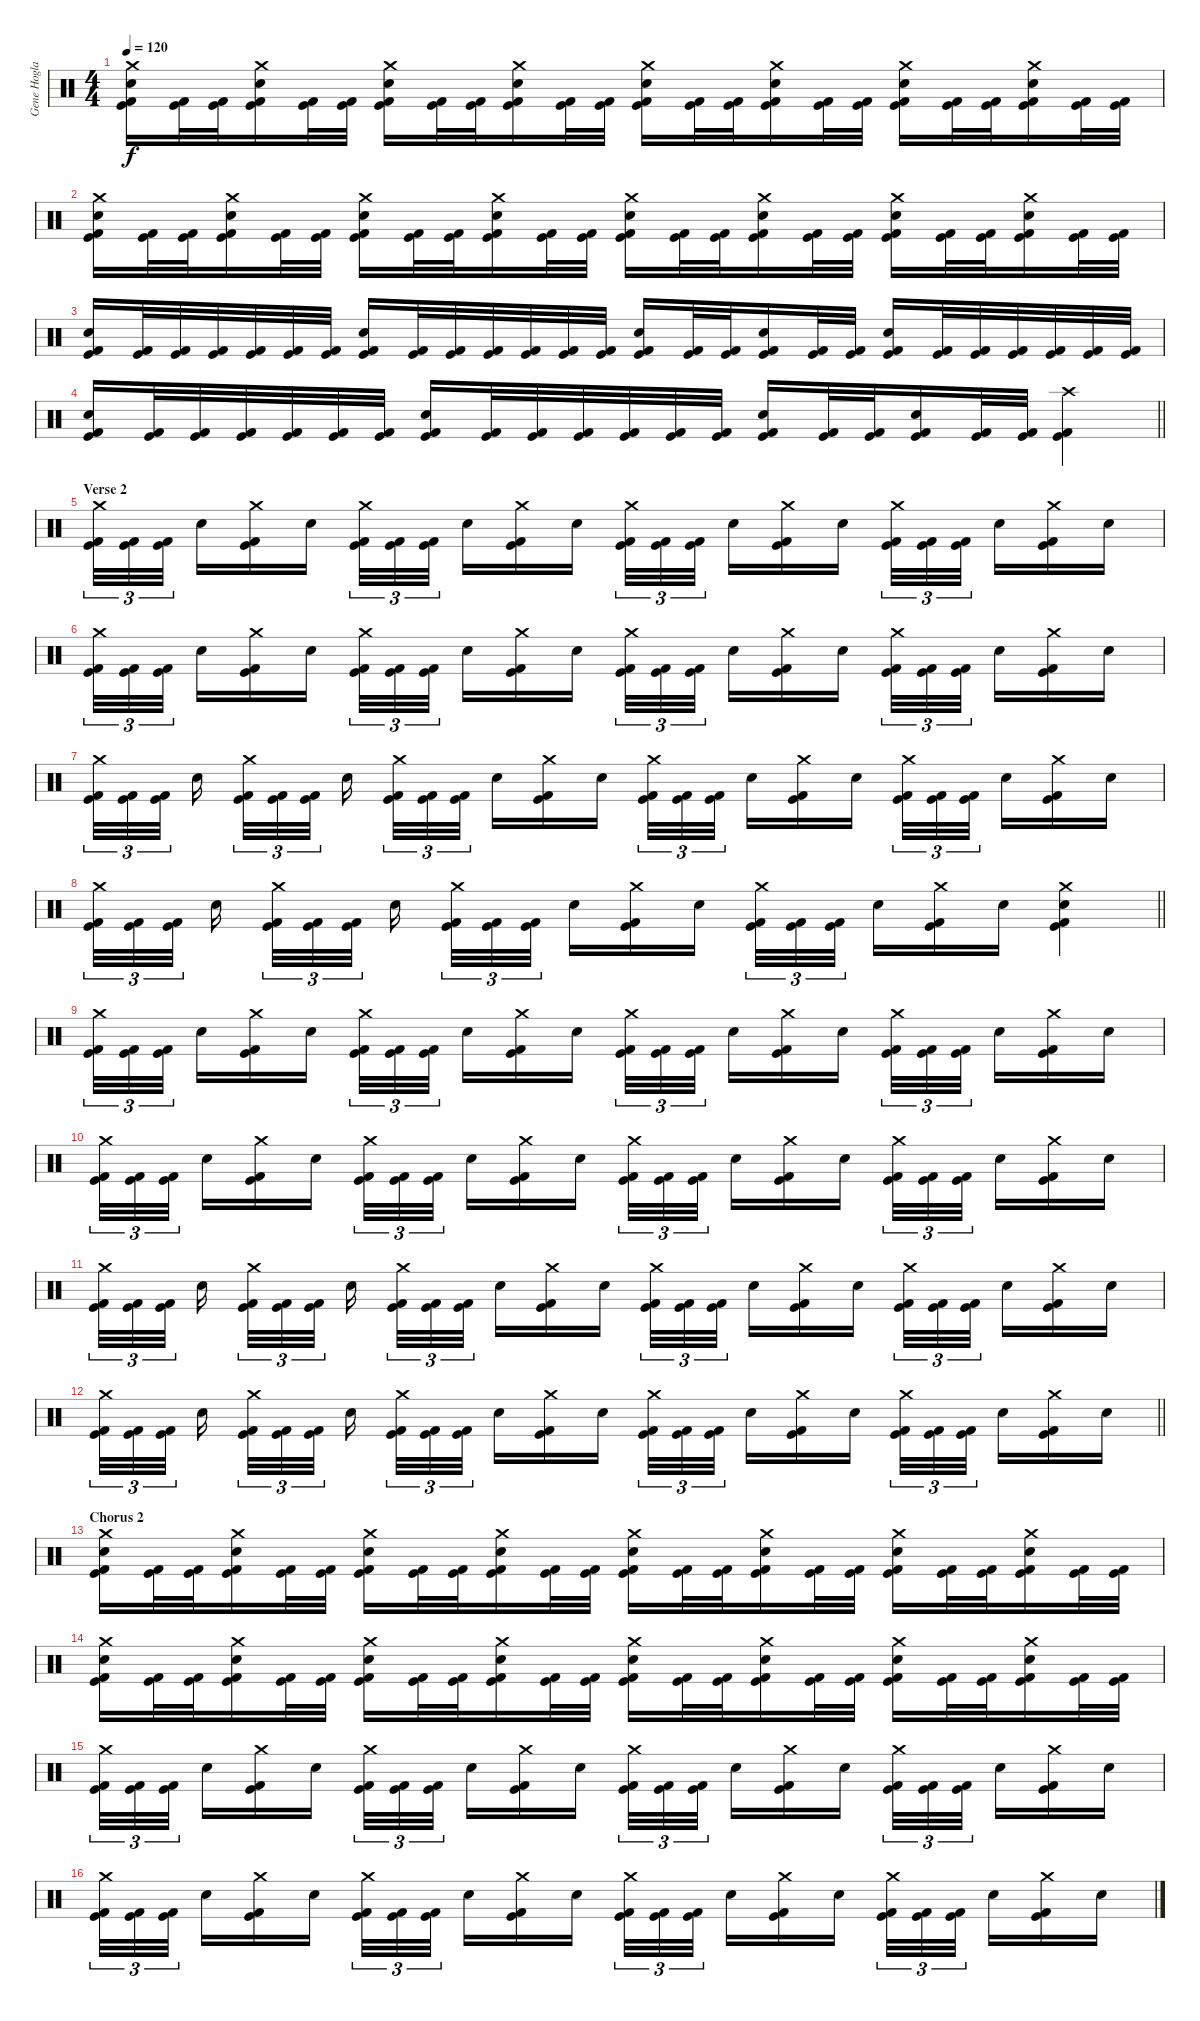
\track ("Gene Hogland" "Gene Hogla") {instrument percussion}
\staff {score}
\articulation defaults
\ts (4 4)
\tempo 120
\clef neutral
\ks c
("Crash medium (hit)" "Electric Snare (hit)" "Kick (hit)" "Kick (hit) 2").16{dy f} ("Kick (hit)" "Kick (hit) 2").32 ("Kick (hit)" "Kick (hit) 2").32 ("Crash medium (hit)" "Electric Snare (hit)" "Kick (hit)" "Kick (hit) 2").16 ("Kick (hit)" "Kick (hit) 2").32 ("Kick (hit)" "Kick (hit) 2").32 ("Crash medium (hit)" "Electric Snare (hit)" "Kick (hit)" "Kick (hit) 2").16 ("Kick (hit)" "Kick (hit) 2").32 ("Kick (hit)" "Kick (hit) 2").32 ("Crash medium (hit)" "Electric Snare (hit)" "Kick (hit)" "Kick (hit) 2").16 ("Kick (hit)" "Kick (hit) 2").32 ("Kick (hit)" "Kick (hit) 2").32 ("Crash medium (hit)" "Electric Snare (hit)" "Kick (hit)" "Kick (hit) 2").16 ("Kick (hit)" "Kick (hit) 2").32 ("Kick (hit)" "Kick (hit) 2").32 ("Crash medium (hit)" "Electric Snare (hit)" "Kick (hit)" "Kick (hit) 2").16 ("Kick (hit)" "Kick (hit) 2").32 ("Kick (hit)" "Kick (hit) 2").32 ("Crash medium (hit)" "Electric Snare (hit)" "Kick (hit)" "Kick (hit) 2").16 ("Kick (hit)" "Kick (hit) 2").32 ("Kick (hit)" "Kick (hit) 2").32 ("Crash medium (hit)" "Electric Snare (hit)" "Kick (hit)" "Kick (hit) 2").16 ("Kick (hit)" "Kick (hit) 2").32 ("Kick (hit)" "Kick (hit) 2").32 |
("Crash medium (hit)" "Electric Snare (hit)" "Kick (hit)" "Kick (hit) 2").16 ("Kick (hit)" "Kick (hit) 2").32 ("Kick (hit)" "Kick (hit) 2").32 ("Crash medium (hit)" "Electric Snare (hit)" "Kick (hit)" "Kick (hit) 2").16 ("Kick (hit)" "Kick (hit) 2").32 ("Kick (hit)" "Kick (hit) 2").32 ("Crash medium (hit)" "Electric Snare (hit)" "Kick (hit)" "Kick (hit) 2").16 ("Kick (hit)" "Kick (hit) 2").32 ("Kick (hit)" "Kick (hit) 2").32 ("Crash medium (hit)" "Electric Snare (hit)" "Kick (hit)" "Kick (hit) 2").16 ("Kick (hit)" "Kick (hit) 2").32 ("Kick (hit)" "Kick (hit) 2").32 ("Crash medium (hit)" "Electric Snare (hit)" "Kick (hit)" "Kick (hit) 2").16 ("Kick (hit)" "Kick (hit) 2").32 ("Kick (hit)" "Kick (hit) 2").32 ("Crash medium (hit)" "Electric Snare (hit)" "Kick (hit)" "Kick (hit) 2").16 ("Kick (hit)" "Kick (hit) 2").32 ("Kick (hit)" "Kick (hit) 2").32 ("Crash medium (hit)" "Electric Snare (hit)" "Kick (hit)" "Kick (hit) 2").16 ("Kick (hit)" "Kick (hit) 2").32 ("Kick (hit)" "Kick (hit) 2").32 ("Crash medium (hit)" "Electric Snare (hit)" "Kick (hit)" "Kick (hit) 2").16 ("Kick (hit)" "Kick (hit) 2").32 ("Kick (hit)" "Kick (hit) 2").32 |
("Electric Snare (hit)" "Kick (hit)" "Kick (hit) 2").16 ("Kick (hit)" "Kick (hit) 2").32 ("Kick (hit)" "Kick (hit) 2").32 ("Kick (hit)" "Kick (hit) 2").32 ("Kick (hit)" "Kick (hit) 2").32 ("Kick (hit)" "Kick (hit) 2").32 ("Kick (hit)" "Kick (hit) 2").32 ("Electric Snare (hit)" "Kick (hit)" "Kick (hit) 2").16 ("Kick (hit)" "Kick (hit) 2").32 ("Kick (hit)" "Kick (hit) 2").32 ("Kick (hit)" "Kick (hit) 2").32 ("Kick (hit)" "Kick (hit) 2").32 ("Kick (hit)" "Kick (hit) 2").32 ("Kick (hit)" "Kick (hit) 2").32 ("Electric Snare (hit)" "Kick (hit)" "Kick (hit) 2").16 ("Kick (hit)" "Kick (hit) 2").32 ("Kick (hit)" "Kick (hit) 2").32 ("Electric Snare (hit)" "Kick (hit)" "Kick (hit) 2").16 ("Kick (hit)" "Kick (hit) 2").32 ("Kick (hit)" "Kick (hit) 2").32 ("Electric Snare (hit)" "Kick (hit)" "Kick (hit) 2").16 ("Kick (hit)" "Kick (hit) 2").32 ("Kick (hit)" "Kick (hit) 2").32 ("Kick (hit)" "Kick (hit) 2").32 ("Kick (hit)" "Kick (hit) 2").32 ("Kick (hit)" "Kick (hit) 2").32 ("Kick (hit)" "Kick (hit) 2").32 |
\barLineRight lightlight
("Electric Snare (hit)" "Kick (hit)" "Kick (hit) 2").16 ("Kick (hit)" "Kick (hit) 2").32 ("Kick (hit)" "Kick (hit) 2").32 ("Kick (hit)" "Kick (hit) 2").32 ("Kick (hit)" "Kick (hit) 2").32 ("Kick (hit)" "Kick (hit) 2").32 ("Kick (hit)" "Kick (hit) 2").32 ("Electric Snare (hit)" "Kick (hit)" "Kick (hit) 2").16 ("Kick (hit)" "Kick (hit) 2").32 ("Kick (hit)" "Kick (hit) 2").32 ("Kick (hit)" "Kick (hit) 2").32 ("Kick (hit)" "Kick (hit) 2").32 ("Kick (hit)" "Kick (hit) 2").32 ("Kick (hit)" "Kick (hit) 2").32 ("Electric Snare (hit)" "Kick (hit)" "Kick (hit) 2").16 ("Kick (hit)" "Kick (hit) 2").32 ("Kick (hit)" "Kick (hit) 2").32 ("Electric Snare (hit)" "Kick (hit)" "Kick (hit) 2").16 ("Kick (hit)" "Kick (hit) 2").32 ("Kick (hit)" "Kick (hit) 2").32 ("Crash high (hit)" "Kick (hit)" "Kick (hit) 2").4 |
\section ("" "Verse 2")
("Crash medium (hit)" "Kick (hit)" "Kick (hit) 2").32{tu (3 2)} ("Kick (hit)" "Kick (hit) 2").32{tu (3 2)} ("Kick (hit)" "Kick (hit) 2").32{tu (3 2)} "Electric Snare (hit)".16 ("Crash medium (hit)" "Kick (hit)" "Kick (hit) 2").16 "Electric Snare (hit)".16 ("Crash medium (hit)" "Kick (hit)" "Kick (hit) 2").32{tu (3 2)} ("Kick (hit)" "Kick (hit) 2").32{tu (3 2)} ("Kick (hit)" "Kick (hit) 2").32{tu (3 2)} "Electric Snare (hit)".16 ("Crash medium (hit)" "Kick (hit)" "Kick (hit) 2").16 "Electric Snare (hit)".16 ("Crash medium (hit)" "Kick (hit)" "Kick (hit) 2").32{tu (3 2)} ("Kick (hit)" "Kick (hit) 2").32{tu (3 2)} ("Kick (hit)" "Kick (hit) 2").32{tu (3 2)} "Electric Snare (hit)".16 ("Crash medium (hit)" "Kick (hit)" "Kick (hit) 2").16 "Electric Snare (hit)".16 ("Crash medium (hit)" "Kick (hit)" "Kick (hit) 2").32{tu (3 2)} ("Kick (hit)" "Kick (hit) 2").32{tu (3 2)} ("Kick (hit)" "Kick (hit) 2").32{tu (3 2)} "Electric Snare (hit)".16 ("Crash medium (hit)" "Kick (hit)" "Kick (hit) 2").16 "Electric Snare (hit)".16 |
("Crash medium (hit)" "Kick (hit)" "Kick (hit) 2").32{tu (3 2)} ("Kick (hit)" "Kick (hit) 2").32{tu (3 2)} ("Kick (hit)" "Kick (hit) 2").32{tu (3 2)} "Electric Snare (hit)".16 ("Crash medium (hit)" "Kick (hit)" "Kick (hit) 2").16 "Electric Snare (hit)".16 ("Crash medium (hit)" "Kick (hit)" "Kick (hit) 2").32{tu (3 2)} ("Kick (hit)" "Kick (hit) 2").32{tu (3 2)} ("Kick (hit)" "Kick (hit) 2").32{tu (3 2)} "Electric Snare (hit)".16 ("Crash medium (hit)" "Kick (hit)" "Kick (hit) 2").16 "Electric Snare (hit)".16 ("Crash medium (hit)" "Kick (hit)" "Kick (hit) 2").32{tu (3 2)} ("Kick (hit)" "Kick (hit) 2").32{tu (3 2)} ("Kick (hit)" "Kick (hit) 2").32{tu (3 2)} "Electric Snare (hit)".16 ("Crash medium (hit)" "Kick (hit)" "Kick (hit) 2").16 "Electric Snare (hit)".16 ("Crash medium (hit)" "Kick (hit)" "Kick (hit) 2").32{tu (3 2)} ("Kick (hit)" "Kick (hit) 2").32{tu (3 2)} ("Kick (hit)" "Kick (hit) 2").32{tu (3 2)} "Electric Snare (hit)".16 ("Crash medium (hit)" "Kick (hit)" "Kick (hit) 2").16 "Electric Snare (hit)".16 |
("Crash medium (hit)" "Kick (hit)" "Kick (hit) 2").32{tu (3 2)} ("Kick (hit)" "Kick (hit) 2").32{tu (3 2)} ("Kick (hit)" "Kick (hit) 2").32{tu (3 2)} "Electric Snare (hit)".16 ("Crash medium (hit)" "Kick (hit)" "Kick (hit) 2").32{tu (3 2)} ("Kick (hit)" "Kick (hit) 2").32{tu (3 2)} ("Kick (hit)" "Kick (hit) 2").32{tu (3 2)} "Electric Snare (hit)".16 ("Crash medium (hit)" "Kick (hit)" "Kick (hit) 2").32{tu (3 2)} ("Kick (hit)" "Kick (hit) 2").32{tu (3 2)} ("Kick (hit)" "Kick (hit) 2").32{tu (3 2)} "Electric Snare (hit)".16 ("Crash medium (hit)" "Kick (hit)" "Kick (hit) 2").16 "Electric Snare (hit)".16 ("Crash medium (hit)" "Kick (hit)" "Kick (hit) 2").32{tu (3 2)} ("Kick (hit)" "Kick (hit) 2").32{tu (3 2)} ("Kick (hit)" "Kick (hit) 2").32{tu (3 2)} "Electric Snare (hit)".16 ("Crash medium (hit)" "Kick (hit)" "Kick (hit) 2").16 "Electric Snare (hit)".16 ("Crash medium (hit)" "Kick (hit)" "Kick (hit) 2").32{tu (3 2)} ("Kick (hit)" "Kick (hit) 2").32{tu (3 2)} ("Kick (hit)" "Kick (hit) 2").32{tu (3 2)} "Electric Snare (hit)".16 ("Crash medium (hit)" "Kick (hit)" "Kick (hit) 2").16 "Electric Snare (hit)".16 |
\barLineRight lightlight
("Crash medium (hit)" "Kick (hit)" "Kick (hit) 2").32{tu (3 2)} ("Kick (hit)" "Kick (hit) 2").32{tu (3 2)} ("Kick (hit)" "Kick (hit) 2").32{tu (3 2)} "Electric Snare (hit)".16 ("Crash medium (hit)" "Kick (hit)" "Kick (hit) 2").32{tu (3 2)} ("Kick (hit)" "Kick (hit) 2").32{tu (3 2)} ("Kick (hit)" "Kick (hit) 2").32{tu (3 2)} "Electric Snare (hit)".16 ("Crash medium (hit)" "Kick (hit)" "Kick (hit) 2").32{tu (3 2)} ("Kick (hit)" "Kick (hit) 2").32{tu (3 2)} ("Kick (hit)" "Kick (hit) 2").32{tu (3 2)} "Electric Snare (hit)".16 ("Crash medium (hit)" "Kick (hit)" "Kick (hit) 2").16 "Electric Snare (hit)".16 ("Crash medium (hit)" "Kick (hit)" "Kick (hit) 2").32{tu (3 2)} ("Kick (hit)" "Kick (hit) 2").32{tu (3 2)} ("Kick (hit)" "Kick (hit) 2").32{tu (3 2)} "Electric Snare (hit)".16 ("Crash medium (hit)" "Kick (hit)" "Kick (hit) 2").16 "Electric Snare (hit)".16 ("Crash medium (hit)" "Electric Snare (hit)" "Kick (hit)" "Kick (hit) 2").4 |
("Crash medium (hit)" "Kick (hit)" "Kick (hit) 2").32{tu (3 2)} ("Kick (hit)" "Kick (hit) 2").32{tu (3 2)} ("Kick (hit)" "Kick (hit) 2").32{tu (3 2)} "Electric Snare (hit)".16 ("Crash medium (hit)" "Kick (hit)" "Kick (hit) 2").16 "Electric Snare (hit)".16 ("Crash medium (hit)" "Kick (hit)" "Kick (hit) 2").32{tu (3 2)} ("Kick (hit)" "Kick (hit) 2").32{tu (3 2)} ("Kick (hit)" "Kick (hit) 2").32{tu (3 2)} "Electric Snare (hit)".16 ("Crash medium (hit)" "Kick (hit)" "Kick (hit) 2").16 "Electric Snare (hit)".16 ("Crash medium (hit)" "Kick (hit)" "Kick (hit) 2").32{tu (3 2)} ("Kick (hit)" "Kick (hit) 2").32{tu (3 2)} ("Kick (hit)" "Kick (hit) 2").32{tu (3 2)} "Electric Snare (hit)".16 ("Crash medium (hit)" "Kick (hit)" "Kick (hit) 2").16 "Electric Snare (hit)".16 ("Crash medium (hit)" "Kick (hit)" "Kick (hit) 2").32{tu (3 2)} ("Kick (hit)" "Kick (hit) 2").32{tu (3 2)} ("Kick (hit)" "Kick (hit) 2").32{tu (3 2)} "Electric Snare (hit)".16 ("Crash medium (hit)" "Kick (hit)" "Kick (hit) 2").16 "Electric Snare (hit)".16 |
("Crash medium (hit)" "Kick (hit)" "Kick (hit) 2").32{tu (3 2)} ("Kick (hit)" "Kick (hit) 2").32{tu (3 2)} ("Kick (hit)" "Kick (hit) 2").32{tu (3 2)} "Electric Snare (hit)".16 ("Crash medium (hit)" "Kick (hit)" "Kick (hit) 2").16 "Electric Snare (hit)".16 ("Crash medium (hit)" "Kick (hit)" "Kick (hit) 2").32{tu (3 2)} ("Kick (hit)" "Kick (hit) 2").32{tu (3 2)} ("Kick (hit)" "Kick (hit) 2").32{tu (3 2)} "Electric Snare (hit)".16 ("Crash medium (hit)" "Kick (hit)" "Kick (hit) 2").16 "Electric Snare (hit)".16 ("Crash medium (hit)" "Kick (hit)" "Kick (hit) 2").32{tu (3 2)} ("Kick (hit)" "Kick (hit) 2").32{tu (3 2)} ("Kick (hit)" "Kick (hit) 2").32{tu (3 2)} "Electric Snare (hit)".16 ("Crash medium (hit)" "Kick (hit)" "Kick (hit) 2").16 "Electric Snare (hit)".16 ("Crash medium (hit)" "Kick (hit)" "Kick (hit) 2").32{tu (3 2)} ("Kick (hit)" "Kick (hit) 2").32{tu (3 2)} ("Kick (hit)" "Kick (hit) 2").32{tu (3 2)} "Electric Snare (hit)".16 ("Crash medium (hit)" "Kick (hit)" "Kick (hit) 2").16 "Electric Snare (hit)".16 |
("Crash medium (hit)" "Kick (hit)" "Kick (hit) 2").32{tu (3 2)} ("Kick (hit)" "Kick (hit) 2").32{tu (3 2)} ("Kick (hit)" "Kick (hit) 2").32{tu (3 2)} "Electric Snare (hit)".16 ("Crash medium (hit)" "Kick (hit)" "Kick (hit) 2").32{tu (3 2)} ("Kick (hit)" "Kick (hit) 2").32{tu (3 2)} ("Kick (hit)" "Kick (hit) 2").32{tu (3 2)} "Electric Snare (hit)".16 ("Crash medium (hit)" "Kick (hit)" "Kick (hit) 2").32{tu (3 2)} ("Kick (hit)" "Kick (hit) 2").32{tu (3 2)} ("Kick (hit)" "Kick (hit) 2").32{tu (3 2)} "Electric Snare (hit)".16 ("Crash medium (hit)" "Kick (hit)" "Kick (hit) 2").16 "Electric Snare (hit)".16 ("Crash medium (hit)" "Kick (hit)" "Kick (hit) 2").32{tu (3 2)} ("Kick (hit)" "Kick (hit) 2").32{tu (3 2)} ("Kick (hit)" "Kick (hit) 2").32{tu (3 2)} "Electric Snare (hit)".16 ("Crash medium (hit)" "Kick (hit)" "Kick (hit) 2").16 "Electric Snare (hit)".16 ("Crash medium (hit)" "Kick (hit)" "Kick (hit) 2").32{tu (3 2)} ("Kick (hit)" "Kick (hit) 2").32{tu (3 2)} ("Kick (hit)" "Kick (hit) 2").32{tu (3 2)} "Electric Snare (hit)".16 ("Crash medium (hit)" "Kick (hit)" "Kick (hit) 2").16 "Electric Snare (hit)".16 |
\barLineRight lightlight
("Crash medium (hit)" "Kick (hit)" "Kick (hit) 2").32{tu (3 2)} ("Kick (hit)" "Kick (hit) 2").32{tu (3 2)} ("Kick (hit)" "Kick (hit) 2").32{tu (3 2)} "Electric Snare (hit)".16 ("Crash medium (hit)" "Kick (hit)" "Kick (hit) 2").32{tu (3 2)} ("Kick (hit)" "Kick (hit) 2").32{tu (3 2)} ("Kick (hit)" "Kick (hit) 2").32{tu (3 2)} "Electric Snare (hit)".16 ("Crash medium (hit)" "Kick (hit)" "Kick (hit) 2").32{tu (3 2)} ("Kick (hit)" "Kick (hit) 2").32{tu (3 2)} ("Kick (hit)" "Kick (hit) 2").32{tu (3 2)} "Electric Snare (hit)".16 ("Crash medium (hit)" "Kick (hit)" "Kick (hit) 2").16 "Electric Snare (hit)".16 ("Crash medium (hit)" "Kick (hit)" "Kick (hit) 2").32{tu (3 2)} ("Kick (hit)" "Kick (hit) 2").32{tu (3 2)} ("Kick (hit)" "Kick (hit) 2").32{tu (3 2)} "Electric Snare (hit)".16 ("Crash medium (hit)" "Kick (hit)" "Kick (hit) 2").16 "Electric Snare (hit)".16 ("Crash medium (hit)" "Kick (hit)" "Kick (hit) 2").32{tu (3 2)} ("Kick (hit)" "Kick (hit) 2").32{tu (3 2)} ("Kick (hit)" "Kick (hit) 2").32{tu (3 2)} "Electric Snare (hit)".16 ("Crash medium (hit)" "Kick (hit)" "Kick (hit) 2").16 "Electric Snare (hit)".16 |
\section ("" "Chorus 2")
("Crash medium (hit)" "Electric Snare (hit)" "Kick (hit)" "Kick (hit) 2").16 ("Kick (hit)" "Kick (hit) 2").32 ("Kick (hit)" "Kick (hit) 2").32 ("Crash medium (hit)" "Electric Snare (hit)" "Kick (hit)" "Kick (hit) 2").16 ("Kick (hit)" "Kick (hit) 2").32 ("Kick (hit)" "Kick (hit) 2").32 ("Crash medium (hit)" "Electric Snare (hit)" "Kick (hit)" "Kick (hit) 2").16 ("Kick (hit)" "Kick (hit) 2").32 ("Kick (hit)" "Kick (hit) 2").32 ("Crash medium (hit)" "Electric Snare (hit)" "Kick (hit)" "Kick (hit) 2").16 ("Kick (hit)" "Kick (hit) 2").32 ("Kick (hit)" "Kick (hit) 2").32 ("Crash medium (hit)" "Electric Snare (hit)" "Kick (hit)" "Kick (hit) 2").16 ("Kick (hit)" "Kick (hit) 2").32 ("Kick (hit)" "Kick (hit) 2").32 ("Crash medium (hit)" "Electric Snare (hit)" "Kick (hit)" "Kick (hit) 2").16 ("Kick (hit)" "Kick (hit) 2").32 ("Kick (hit)" "Kick (hit) 2").32 ("Crash medium (hit)" "Electric Snare (hit)" "Kick (hit)" "Kick (hit) 2").16 ("Kick (hit)" "Kick (hit) 2").32 ("Kick (hit)" "Kick (hit) 2").32 ("Crash medium (hit)" "Electric Snare (hit)" "Kick (hit)" "Kick (hit) 2").16 ("Kick (hit)" "Kick (hit) 2").32 ("Kick (hit)" "Kick (hit) 2").32 |
("Crash medium (hit)" "Electric Snare (hit)" "Kick (hit)" "Kick (hit) 2").16 ("Kick (hit)" "Kick (hit) 2").32 ("Kick (hit)" "Kick (hit) 2").32 ("Crash medium (hit)" "Electric Snare (hit)" "Kick (hit)" "Kick (hit) 2").16 ("Kick (hit)" "Kick (hit) 2").32 ("Kick (hit)" "Kick (hit) 2").32 ("Crash medium (hit)" "Electric Snare (hit)" "Kick (hit)" "Kick (hit) 2").16 ("Kick (hit)" "Kick (hit) 2").32 ("Kick (hit)" "Kick (hit) 2").32 ("Crash medium (hit)" "Electric Snare (hit)" "Kick (hit)" "Kick (hit) 2").16 ("Kick (hit)" "Kick (hit) 2").32 ("Kick (hit)" "Kick (hit) 2").32 ("Crash medium (hit)" "Electric Snare (hit)" "Kick (hit)" "Kick (hit) 2").16 ("Kick (hit)" "Kick (hit) 2").32 ("Kick (hit)" "Kick (hit) 2").32 ("Crash medium (hit)" "Electric Snare (hit)" "Kick (hit)" "Kick (hit) 2").16 ("Kick (hit)" "Kick (hit) 2").32 ("Kick (hit)" "Kick (hit) 2").32 ("Crash medium (hit)" "Electric Snare (hit)" "Kick (hit)" "Kick (hit) 2").16 ("Kick (hit)" "Kick (hit) 2").32 ("Kick (hit)" "Kick (hit) 2").32 ("Crash medium (hit)" "Electric Snare (hit)" "Kick (hit)" "Kick (hit) 2").16 ("Kick (hit)" "Kick (hit) 2").32 ("Kick (hit)" "Kick (hit) 2").32 |
("Crash medium (hit)" "Kick (hit)" "Kick (hit) 2").32{tu (3 2)} ("Kick (hit)" "Kick (hit) 2").32{tu (3 2)} ("Kick (hit)" "Kick (hit) 2").32{tu (3 2)} "Electric Snare (hit)".16 ("Crash medium (hit)" "Kick (hit)" "Kick (hit) 2").16 "Electric Snare (hit)".16 ("Crash medium (hit)" "Kick (hit)" "Kick (hit) 2").32{tu (3 2)} ("Kick (hit)" "Kick (hit) 2").32{tu (3 2)} ("Kick (hit)" "Kick (hit) 2").32{tu (3 2)} "Electric Snare (hit)".16 ("Crash medium (hit)" "Kick (hit)" "Kick (hit) 2").16 "Electric Snare (hit)".16 ("Crash medium (hit)" "Kick (hit)" "Kick (hit) 2").32{tu (3 2)} ("Kick (hit)" "Kick (hit) 2").32{tu (3 2)} ("Kick (hit)" "Kick (hit) 2").32{tu (3 2)} "Electric Snare (hit)".16 ("Crash medium (hit)" "Kick (hit)" "Kick (hit) 2").16 "Electric Snare (hit)".16 ("Crash medium (hit)" "Kick (hit)" "Kick (hit) 2").32{tu (3 2)} ("Kick (hit)" "Kick (hit) 2").32{tu (3 2)} ("Kick (hit)" "Kick (hit) 2").32{tu (3 2)} "Electric Snare (hit)".16 ("Crash medium (hit)" "Kick (hit)" "Kick (hit) 2").16 "Electric Snare (hit)".16 |
("Crash medium (hit)" "Kick (hit)" "Kick (hit) 2").32{tu (3 2)} ("Kick (hit)" "Kick (hit) 2").32{tu (3 2)} ("Kick (hit)" "Kick (hit) 2").32{tu (3 2)} "Electric Snare (hit)".16 ("Crash medium (hit)" "Kick (hit)" "Kick (hit) 2").16 "Electric Snare (hit)".16 ("Crash medium (hit)" "Kick (hit)" "Kick (hit) 2").32{tu (3 2)} ("Kick (hit)" "Kick (hit) 2").32{tu (3 2)} ("Kick (hit)" "Kick (hit) 2").32{tu (3 2)} "Electric Snare (hit)".16 ("Crash medium (hit)" "Kick (hit)" "Kick (hit) 2").16 "Electric Snare (hit)".16 ("Crash medium (hit)" "Kick (hit)" "Kick (hit) 2").32{tu (3 2)} ("Kick (hit)" "Kick (hit) 2").32{tu (3 2)} ("Kick (hit)" "Kick (hit) 2").32{tu (3 2)} "Electric Snare (hit)".16 ("Crash medium (hit)" "Kick (hit)" "Kick (hit) 2").16 "Electric Snare (hit)".16 ("Crash medium (hit)" "Kick (hit)" "Kick (hit) 2").32{tu (3 2)} ("Kick (hit)" "Kick (hit) 2").32{tu (3 2)} ("Kick (hit)" "Kick (hit) 2").32{tu (3 2)} "Electric Snare (hit)".16 ("Crash medium (hit)" "Kick (hit)" "Kick (hit) 2").16 "Electric Snare (hit)".16
